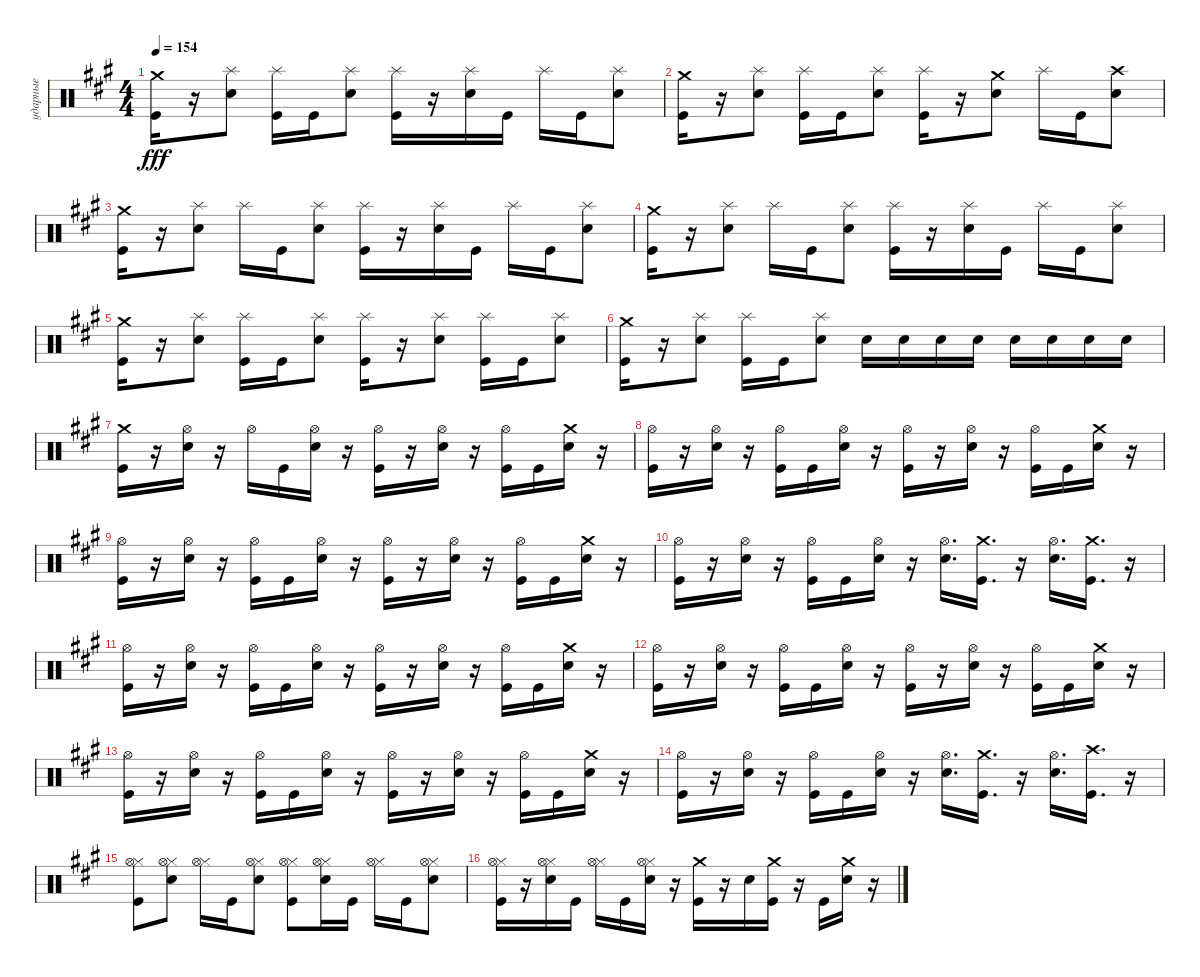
\track ("ударные" "ударные") {instrument percussion}
\staff {score}
\articulation defaults
\ts (4 4)
\tempo 154
\clef neutral
\ks f#minor
("Kick (hit)" "Crash medium (hit)").16{dy fff} r.16 ("Snare (hit) 2" "Splash (hit)").8 ("Kick (hit)" "Splash (hit)").16 "Kick (hit)".16 ("Snare (hit) 2" "Splash (hit)").8 ("Kick (hit)" "Splash (hit)").16 r.16 ("Snare (hit) 2" "Splash (hit)").16 "Kick (hit)".16 "Splash (hit)".16 "Kick (hit)".16 ("Snare (hit) 2" "Splash (hit)").8 |
("Kick (hit)" "Crash medium (hit)").16 r.16 ("Snare (hit) 2" "Splash (hit)").8 ("Kick (hit)" "Splash (hit)").16 "Kick (hit)".16 ("Snare (hit) 2" "Splash (hit)").8 ("Kick (hit)" "Splash (hit)").16 r.16 ("Crash medium (hit)" "Snare (hit) 2").8 "Splash (hit)".16 "Kick (hit)".16 ("Snare (hit) 2" "Crash high (hit)").8 |
("Kick (hit)" "Crash medium (hit)").16 r.16 ("Snare (hit) 2" "Splash (hit)").8 "Splash (hit)".16 "Kick (hit)".16 ("Snare (hit) 2" "Splash (hit)").8 ("Kick (hit)" "Splash (hit)").16 r.16 ("Snare (hit) 2" "Splash (hit)").16 "Kick (hit)".16 "Splash (hit)".16 "Kick (hit)".16 ("Snare (hit) 2" "Splash (hit)").8 |
("Kick (hit)" "Crash medium (hit)").16 r.16 ("Snare (hit) 2" "Splash (hit)").8 "Splash (hit)".16 "Kick (hit)".16 ("Snare (hit) 2" "Splash (hit)").8 ("Kick (hit)" "Splash (hit)").16 r.16 ("Snare (hit) 2" "Splash (hit)").16 "Kick (hit)".16 "Splash (hit)".16 "Kick (hit)".16 ("Snare (hit) 2" "Splash (hit)").8 |
("Kick (hit)" "Crash medium (hit)").16 r.16 ("Snare (hit) 2" "Splash (hit)").8 ("Kick (hit)" "Splash (hit)").16 "Kick (hit)".16 ("Snare (hit) 2" "Splash (hit)").8 ("Kick (hit)" "Splash (hit)").16 r.16 ("Snare (hit) 2" "Splash (hit)").8 ("Kick (hit)" "Splash (hit)").16 "Kick (hit)".16 ("Snare (hit) 2" "Splash (hit)").8 |
("Kick (hit)" "Crash medium (hit)").16 r.16 ("Snare (hit) 2" "Splash (hit)").8 ("Kick (hit)" "Splash (hit)").16 "Kick (hit)".16 ("Snare (hit) 2" "Splash (hit)").8 "Snare (hit) 2".16 "Snare (hit) 2".16 "Snare (hit) 2".16 "Snare (hit) 2".16 "Snare (hit) 2".16 "Snare (hit) 2".16 "Snare (hit) 2".16 "Snare (hit) 2".16 |
("Crash medium (hit)" "Kick (hit)").16 r.16 ("Snare (hit) 2" "Hi-Hat (open)").16 r.16 "Hi-Hat (open)".16 "Kick (hit)".16 ("Snare (hit) 2" "Hi-Hat (open)").16 r.16 ("Kick (hit)" "Hi-Hat (open)").16 r.16 ("Snare (hit) 2" "Hi-Hat (open)").16 r.16 ("Kick (hit)" "Hi-Hat (open)").16 "Kick (hit)".16 ("Crash medium (hit)" "Snare (hit) 2").16 r.16 |
("Kick (hit)" "Hi-Hat (open)").16 r.16 ("Snare (hit) 2" "Hi-Hat (open)").16 r.16 ("Kick (hit)" "Hi-Hat (open)").16 "Kick (hit)".16 ("Snare (hit) 2" "Hi-Hat (open)").16 r.16 ("Kick (hit)" "Hi-Hat (open)").16 r.16 ("Snare (hit) 2" "Hi-Hat (open)").16 r.16 ("Kick (hit)" "Hi-Hat (open)").16 "Kick (hit)".16 ("Crash medium (hit)" "Snare (hit) 2").16 r.16 |
("Kick (hit)" "Hi-Hat (open)").16 r.16 ("Snare (hit) 2" "Hi-Hat (open)").16 r.16 ("Kick (hit)" "Hi-Hat (open)").16 "Kick (hit)".16 ("Snare (hit) 2" "Hi-Hat (open)").16 r.16 ("Kick (hit)" "Hi-Hat (open)").16 r.16 ("Snare (hit) 2" "Hi-Hat (open)").16 r.16 ("Kick (hit)" "Hi-Hat (open)").16 "Kick (hit)".16 ("Crash medium (hit)" "Snare (hit) 2").16 r.16 |
("Kick (hit)" "Hi-Hat (open)").16 r.16 ("Snare (hit) 2" "Hi-Hat (open)").16 r.16 ("Kick (hit)" "Hi-Hat (open)").16 "Kick (hit)".16 ("Snare (hit) 2" "Hi-Hat (open)").16 r.16 ("Snare (hit) 2" "Hi-Hat (open)").16{d} ("Crash medium (hit)" "Kick (hit)").16{d} r.16 ("Snare (hit) 2" "Hi-Hat (open)").16{d} ("Crash medium (hit)" "Kick (hit)").16{d} r.16 |
("Kick (hit)" "Hi-Hat (open)").16 r.16 ("Snare (hit) 2" "Hi-Hat (open)").16 r.16 ("Kick (hit)" "Hi-Hat (open)").16 "Kick (hit)".16 ("Snare (hit) 2" "Hi-Hat (open)").16 r.16 ("Kick (hit)" "Hi-Hat (open)").16 r.16 ("Snare (hit) 2" "Hi-Hat (open)").16 r.16 ("Kick (hit)" "Hi-Hat (open)").16 "Kick (hit)".16 ("Crash medium (hit)" "Snare (hit) 2").16 r.16 |
("Kick (hit)" "Hi-Hat (open)").16 r.16 ("Snare (hit) 2" "Hi-Hat (open)").16 r.16 ("Kick (hit)" "Hi-Hat (open)").16 "Kick (hit)".16 ("Snare (hit) 2" "Hi-Hat (open)").16 r.16 ("Kick (hit)" "Hi-Hat (open)").16 r.16 ("Snare (hit) 2" "Hi-Hat (open)").16 r.16 ("Kick (hit)" "Hi-Hat (open)").16 "Kick (hit)".16 ("Crash medium (hit)" "Snare (hit) 2").16 r.16 |
("Kick (hit)" "Hi-Hat (open)").16 r.16 ("Snare (hit) 2" "Hi-Hat (open)").16 r.16 ("Kick (hit)" "Hi-Hat (open)").16 "Kick (hit)".16 ("Snare (hit) 2" "Hi-Hat (open)").16 r.16 ("Kick (hit)" "Hi-Hat (open)").16 r.16 ("Snare (hit) 2" "Hi-Hat (open)").16 r.16 ("Kick (hit)" "Hi-Hat (open)").16 "Kick (hit)".16 ("Crash medium (hit)" "Snare (hit) 2").16 r.16 |
("Kick (hit)" "Hi-Hat (open)").16 r.16 ("Snare (hit) 2" "Hi-Hat (open)").16 r.16 ("Kick (hit)" "Hi-Hat (open)").16 "Kick (hit)".16 ("Snare (hit) 2" "Hi-Hat (open)").16 r.16 ("Snare (hit) 2" "Hi-Hat (open)").16{d} ("Crash medium (hit)" "Kick (hit)").16{d} r.16 ("Snare (hit) 2" "Hi-Hat (open)").16{d} ("Kick (hit)" "Crash high (hit)").16{d} r.16 |
("Hi-Hat (closed)" "Kick (hit)" "Hi-Hat (open)").8 ("Snare (hit) 2" "Hi-Hat (closed)" "Hi-Hat (open)").8 ("Hi-Hat (closed)" "Hi-Hat (open)").16 "Kick (hit)".16 ("Snare (hit) 2" "Hi-Hat (closed)" "Hi-Hat (open)").8 ("Kick (hit)" "Hi-Hat (closed)" "Hi-Hat (open)").8 ("Snare (hit) 2" "Hi-Hat (closed)" "Hi-Hat (open)").16 "Kick (hit)".16 ("Hi-Hat (closed)" "Hi-Hat (open)").16 "Kick (hit)".16 ("Snare (hit) 2" "Hi-Hat (closed)" "Hi-Hat (open)").8 |
("Hi-Hat (closed)" "Kick (hit)" "Hi-Hat (open)").16 r.16 ("Hi-Hat (closed)" "Snare (hit) 2" "Hi-Hat (open)").16 "Kick (hit)".16 ("Hi-Hat (closed)" "Hi-Hat (open)").16 "Kick (hit)".16 ("Hi-Hat (closed)" "Snare (hit) 2" "Hi-Hat (open)").16 r.16 ("Crash medium (hit)" "Kick (hit)").16 r.16 "Snare (hit) 2".16 ("Crash medium (hit)" "Kick (hit)").16 r.16 "Kick (hit)".16 ("Crash medium (hit)" "Snare (hit) 2").16 r.16
